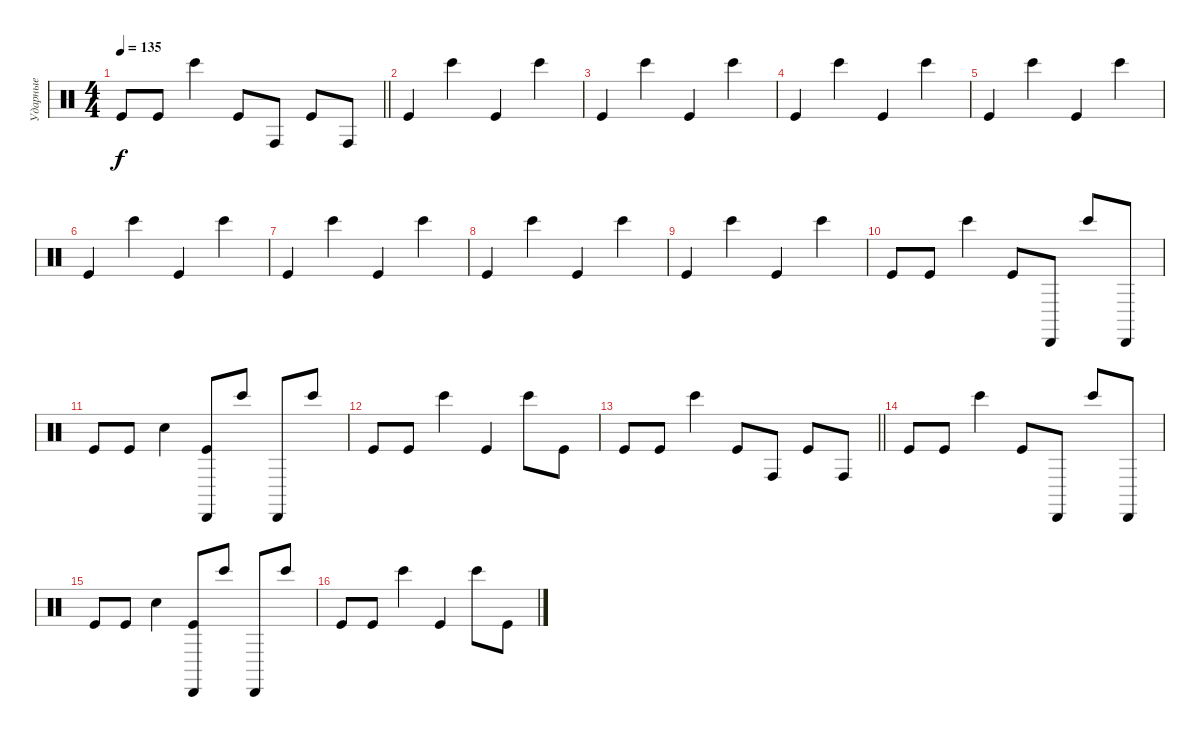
\track ("Ударные" "Ударные") {instrument percussion}
\staff {score}
\articulation defaults
\ts (4 4)
\tempo 135
\clef neutral
\barLineRight lightlight
\ks c "Kick (hit)".8{dy f} "Kick (hit)".8 "Bongo High (hit)".4 "Kick (hit)".8 "Conga high (hit)".8 "Kick (hit)".8 "Conga high (hit)".8
|
"Kick (hit)".4 "Bongo High (hit)".4 "Kick (hit)".4 "Bongo High (hit)".4 |
"Kick (hit)".4 "Bongo High (hit)".4 "Kick (hit)".4 "Bongo High (hit)".4 |
"Kick (hit)".4 "Bongo High (hit)".4 "Kick (hit)".4 "Bongo High (hit)".4 |
"Kick (hit)".4 "Bongo High (hit)".4 "Kick (hit)".4 "Bongo High (hit)".4 |
"Kick (hit)".4 "Bongo High (hit)".4 "Kick (hit)".4 "Bongo High (hit)".4 |
"Kick (hit)".4 "Bongo High (hit)".4 "Kick (hit)".4 "Bongo High (hit)".4 |
"Kick (hit)".4 "Bongo High (hit)".4 "Kick (hit)".4 "Bongo High (hit)".4 |
"Kick (hit)".4 "Bongo High (hit)".4 "Kick (hit)".4 "Bongo High (hit)".4 |
"Kick (hit)".8 "Kick (hit)".8 "Bongo High (hit)".4 "Kick (hit)".8 "Cabasa (hit)".8 "Bongo High (hit)".8 "Cabasa (hit)".8 |
"Kick (hit)".8 "Kick (hit)".8 "Hand Clap (hit)".4 ("Kick (hit)" "Cabasa (hit)").8 "Bongo High (hit)".8 "Cabasa (hit)".8 "Bongo High (hit)".8 |
"Kick (hit)".8 "Kick (hit)".8 "Bongo High (hit)".4 "Kick (hit)".4 "Bongo High (hit)".8 "Kick (hit)".8 |
\barLineRight lightlight "Kick (hit)".8 "Kick (hit)".8 "Bongo High (hit)".4 "Kick (hit)".8 "Conga high (hit)".8 "Kick (hit)".8 "Conga high (hit)".8
|
"Kick (hit)".8 "Kick (hit)".8 "Bongo High (hit)".4 "Kick (hit)".8 "Cabasa (hit)".8 "Bongo High (hit)".8 "Cabasa (hit)".8 |
"Kick (hit)".8 "Kick (hit)".8 "Hand Clap (hit)".4 ("Kick (hit)" "Cabasa (hit)").8 "Bongo High (hit)".8 "Cabasa (hit)".8 "Bongo High (hit)".8 |
"Kick (hit)".8 "Kick (hit)".8 "Bongo High (hit)".4 "Kick (hit)".4 "Bongo High (hit)".8 "Kick (hit)".8
